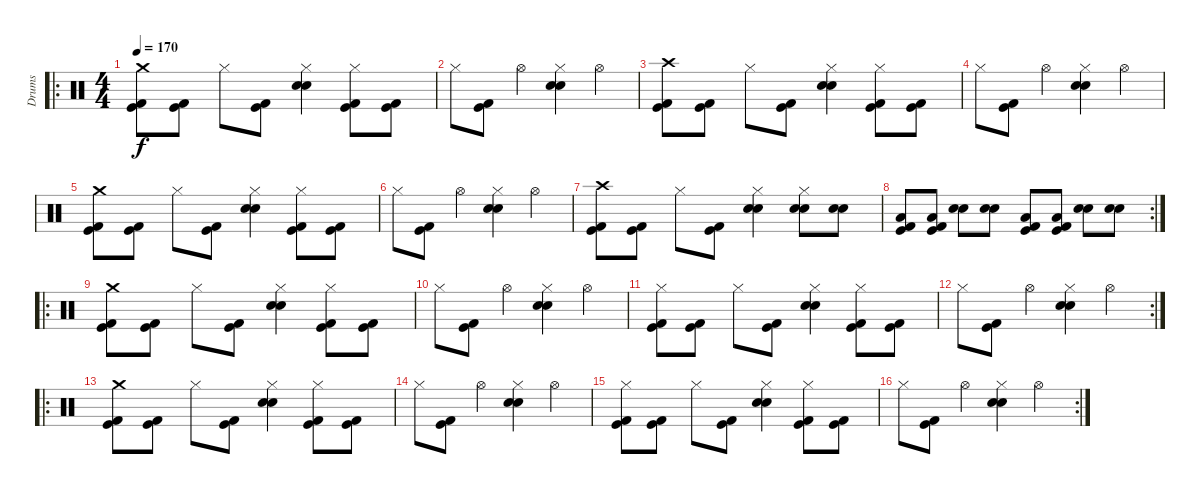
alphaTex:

\track ("Drums" "Drums") {instrument percussion}
\staff {score}
\articulation defaults
\ro
\ts (4 4)
\tempo 170
\clef neutral
\ks c
("Crash medium (hit)" "Kick (hit) 2" "Kick (hit)").8{dy f} ("Kick (hit) 2" "Kick (hit)").8 "Hi-Hat (closed)".8 ("Kick (hit) 2" "Kick (hit)").8 ("Hi-Hat (closed)" "Electric Snare (hit)" "Snare (hit) 2").4 ("Hi-Hat (closed)" "Kick (hit) 2" "Kick (hit)").8 ("Kick (hit) 2" "Kick (hit)").8 |
"Hi-Hat (closed)".8 ("Kick (hit) 2" "Kick (hit)").8 "Hi-Hat (open)".4 ("Hi-Hat (closed)" "Electric Snare (hit)" "Snare (hit) 2").4 "Hi-Hat (open)".4 |
("Crash high (hit)" "Kick (hit) 2" "Kick (hit)").8 ("Kick (hit) 2" "Kick (hit)").8 "Hi-Hat (closed)".8 ("Kick (hit) 2" "Kick (hit)").8 ("Hi-Hat (closed)" "Electric Snare (hit)" "Snare (hit) 2").4 ("Hi-Hat (closed)" "Kick (hit) 2" "Kick (hit)").8 ("Kick (hit) 2" "Kick (hit)").8 |
"Hi-Hat (closed)".8 ("Kick (hit) 2" "Kick (hit)").8 "Hi-Hat (open)".4 ("Hi-Hat (closed)" "Electric Snare (hit)" "Snare (hit) 2").4 "Hi-Hat (open)".4 |
("Crash medium (hit)" "Kick (hit) 2" "Kick (hit)").8 ("Kick (hit) 2" "Kick (hit)").8 "Hi-Hat (closed)".8 ("Kick (hit) 2" "Kick (hit)").8 ("Hi-Hat (closed)" "Electric Snare (hit)" "Snare (hit) 2").4 ("Hi-Hat (closed)" "Kick (hit) 2" "Kick (hit)").8 ("Kick (hit) 2" "Kick (hit)").8 |
"Hi-Hat (closed)".8 ("Kick (hit) 2" "Kick (hit)").8 "Hi-Hat (open)".4 ("Hi-Hat (closed)" "Electric Snare (hit)" "Snare (hit) 2").4 "Hi-Hat (open)".4 |
("Crash high (hit)" "Kick (hit) 2" "Kick (hit)").8 ("Kick (hit) 2" "Kick (hit)").8 "Hi-Hat (closed)".8 ("Kick (hit) 2" "Kick (hit)").8 ("Hi-Hat (closed)" "Electric Snare (hit)" "Snare (hit) 2").4 ("Hi-Hat (closed)" "Electric Snare (hit)" "Snare (hit) 2").8 ("Electric Snare (hit)" "Snare (hit) 2").8 |
\rc 2
("Low Tom (hit)" "Kick (hit) 2" "Kick (hit)").8 ("Low Tom (hit)" "Kick (hit) 2" "Kick (hit)").8 ("Electric Snare (hit)" "Snare (hit) 2").8 ("Electric Snare (hit)" "Snare (hit) 2").8 ("Low Tom (hit)" "Kick (hit) 2" "Kick (hit)").8 ("Low Tom (hit)" "Kick (hit) 2" "Kick (hit)").8 ("Electric Snare (hit)" "Snare (hit) 2").8 ("Electric Snare (hit)" "Snare (hit) 2").8 |
\ro
("Crash medium (hit)" "Kick (hit) 2" "Kick (hit)").8 ("Kick (hit) 2" "Kick (hit)").8 "Hi-Hat (closed)".8 ("Kick (hit) 2" "Kick (hit)").8 ("Hi-Hat (closed)" "Electric Snare (hit)" "Snare (hit) 2").4 ("Hi-Hat (closed)" "Kick (hit) 2" "Kick (hit)").8 ("Kick (hit) 2" "Kick (hit)").8 |
"Hi-Hat (closed)".8 ("Kick (hit) 2" "Kick (hit)").8 "Hi-Hat (open)".4 ("Hi-Hat (closed)" "Electric Snare (hit)" "Snare (hit) 2").4 "Hi-Hat (open)".4 |
("Hi-Hat (closed)" "Kick (hit) 2" "Kick (hit)").8 ("Kick (hit) 2" "Kick (hit)").8 "Hi-Hat (closed)".8 ("Kick (hit) 2" "Kick (hit)").8 ("Hi-Hat (closed)" "Electric Snare (hit)" "Snare (hit) 2").4 ("Hi-Hat (closed)" "Kick (hit) 2" "Kick (hit)").8 ("Kick (hit) 2" "Kick (hit)").8 |
\rc 2 "Hi-Hat (closed)".8
("Kick (hit) 2" "Kick (hit)").8 "Hi-Hat (open)".4 ("Hi-Hat (closed)" "Electric Snare (hit)" "Snare (hit) 2").4 "Hi-Hat (open)".4 |
\ro
("Crash medium (hit)" "Kick (hit) 2" "Kick (hit)").8 ("Kick (hit) 2" "Kick (hit)").8 "Hi-Hat (closed)".8 ("Kick (hit) 2" "Kick (hit)").8 ("Hi-Hat (closed)" "Electric Snare (hit)" "Snare (hit) 2").4 ("Hi-Hat (closed)" "Kick (hit) 2" "Kick (hit)").8 ("Kick (hit) 2" "Kick (hit)").8 |
"Hi-Hat (closed)".8 ("Kick (hit) 2" "Kick (hit)").8 "Hi-Hat (open)".4 ("Hi-Hat (closed)" "Electric Snare (hit)" "Snare (hit) 2").4 "Hi-Hat (open)".4 |
("Hi-Hat (closed)" "Kick (hit) 2" "Kick (hit)").8 ("Kick (hit) 2" "Kick (hit)").8 "Hi-Hat (closed)".8 ("Kick (hit) 2" "Kick (hit)").8 ("Hi-Hat (closed)" "Electric Snare (hit)" "Snare (hit) 2").4 ("Hi-Hat (closed)" "Kick (hit) 2" "Kick (hit)").8 ("Kick (hit) 2" "Kick (hit)").8 |
\rc 2 "Hi-Hat (closed)".8
("Kick (hit) 2" "Kick (hit)").8 "Hi-Hat (open)".4 ("Hi-Hat (closed)" "Electric Snare (hit)" "Snare (hit) 2").4 "Hi-Hat (open)".4
